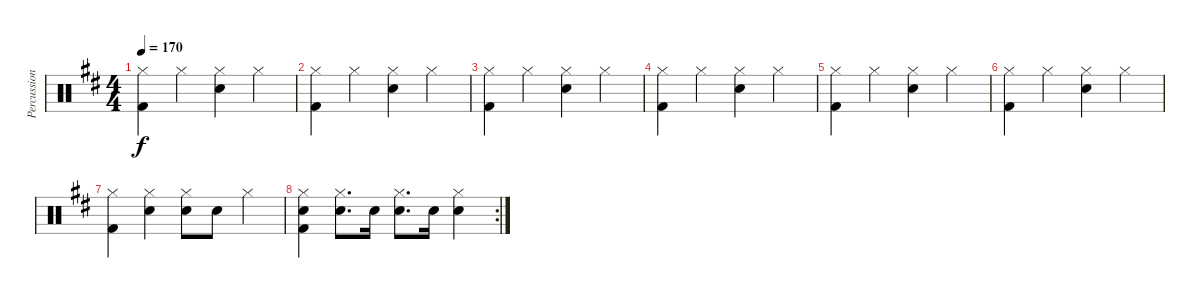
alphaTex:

\track ("Percussion" "Percussion") {instrument percussion}
\staff {score}
\articulation defaults
\ts (4 4)
\tempo 170
\clef neutral
\ks d
("Hi-Hat (closed)" "Kick (hit) 2").4{dy f} "Hi-Hat (closed)".4 ("Hi-Hat (closed)" "Snare (hit) 2").4 "Hi-Hat (closed)".4 |
("Hi-Hat (closed)" "Kick (hit) 2").4 "Hi-Hat (closed)".4 ("Hi-Hat (closed)" "Snare (hit) 2").4 "Hi-Hat (closed)".4 |
("Hi-Hat (closed)" "Kick (hit) 2").4 "Hi-Hat (closed)".4 ("Hi-Hat (closed)" "Snare (hit) 2").4 "Hi-Hat (closed)".4 |
("Hi-Hat (closed)" "Kick (hit) 2").4 "Hi-Hat (closed)".4 ("Hi-Hat (closed)" "Snare (hit) 2").4 "Hi-Hat (closed)".4 |
("Hi-Hat (closed)" "Kick (hit) 2").4 "Hi-Hat (closed)".4 ("Hi-Hat (closed)" "Snare (hit) 2").4 "Hi-Hat (closed)".4 |
("Hi-Hat (closed)" "Kick (hit) 2").4 "Hi-Hat (closed)".4 ("Hi-Hat (closed)" "Snare (hit) 2").4 "Hi-Hat (closed)".4 |
("Hi-Hat (closed)" "Kick (hit) 2").4 ("Hi-Hat (closed)" "Snare (hit) 2").4 ("Hi-Hat (closed)" "Snare (hit) 2").8 "Snare (hit) 2".8 "Hi-Hat (closed)".4 |
\rc 2
("Hi-Hat (closed)" "Snare (hit) 2" "Kick (hit) 2").4 ("Hi-Hat (closed)" "Snare (hit) 2").8{d} "Snare (hit) 2".16 ("Hi-Hat (closed)" "Snare (hit) 2").8{d} "Snare (hit) 2".16 ("Hi-Hat (closed)" "Snare (hit) 2").4
